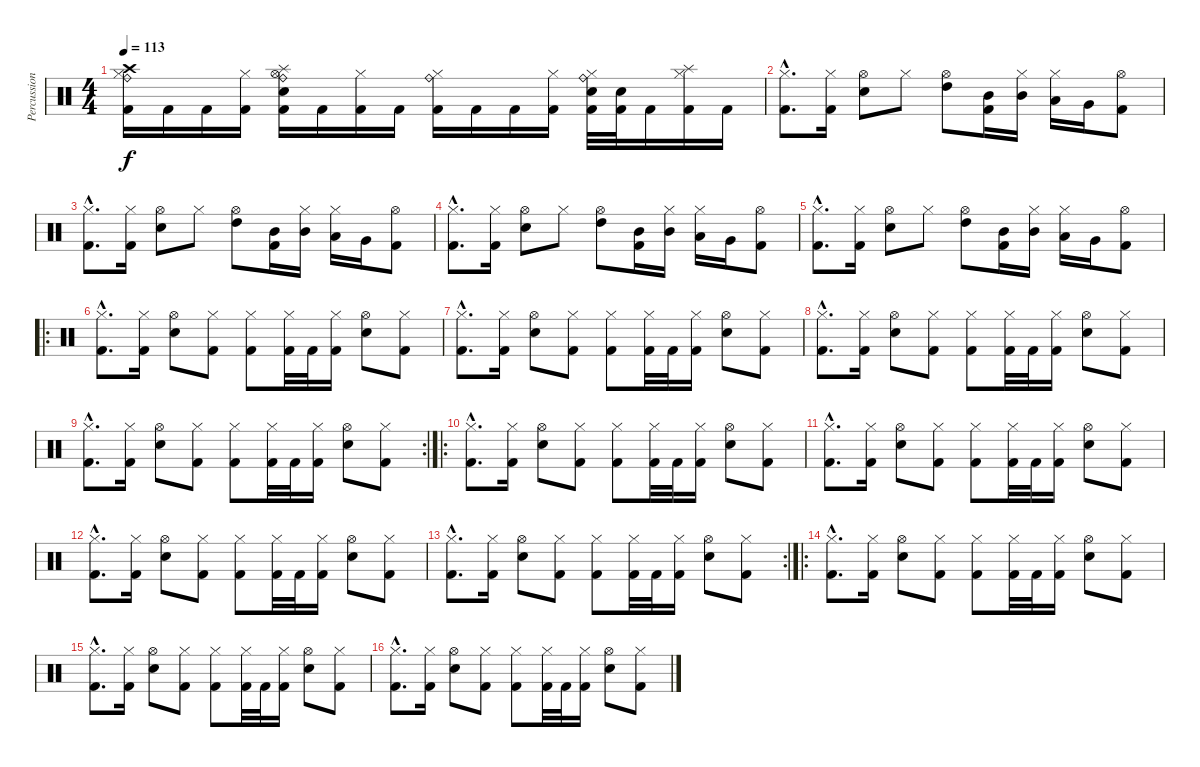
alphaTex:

\track ("Percussion" "Percussion") {instrument percussion}
\staff {score}
\articulation defaults
\ts (4 4)
\tempo 113
\clef neutral
\ks c
("Ride (bell)" "Crash high (hit)" "Hi-Hat (closed)" "Kick (hit) 2").16{dy f} "Kick (hit) 2".16 "Kick (hit) 2".16 ("Hi-Hat (closed)" "Kick (hit) 2").16 ("Ride (bell)" "Hi-Hat (open)" "Splash (hit)" "Snare (hit) 2" "Kick (hit) 2").16 "Kick (hit) 2".16 ("Hi-Hat (closed)" "Kick (hit) 2").16 "Kick (hit) 2".16 ("Ride (bell)" "Hi-Hat (closed)" "Kick (hit) 2").16 "Kick (hit) 2".16 "Kick (hit) 2".16 ("Hi-Hat (closed)" "Kick (hit) 2").16 ("Ride (bell)" "Hi-Hat (closed)" "Snare (hit) 2" "Kick (hit) 2").32 ("Snare (hit) 2" "Kick (hit) 2").32 "Kick (hit) 2".16 ("Hi-Hat (closed)" "Splash (hit)" "Kick (hit) 2").16 "Kick (hit) 2".16 |
("Hi-Hat (closed)"{hac} "Kick (hit) 2"{hac}).8{d} ("Hi-Hat (closed)" "Kick (hit) 2").16 ("Hi-Hat (open)" "Snare (hit) 2").8 "Hi-Hat (closed)".8 ("Hi-Hat (open)" "High Tom (hit)").8 ("Mid Tom (hit)" "Kick (hit) 2").16 ("Hi-Hat (closed)" "Mid Tom (hit)").16 ("Hi-Hat (closed)" "Low Tom (hit)").16 "Very Low Tom (hit)".16 ("Hi-Hat (open)" "Kick (hit) 2").8 |
("Hi-Hat (closed)"{hac} "Kick (hit) 2"{hac}).8{d} ("Hi-Hat (closed)" "Kick (hit) 2").16 ("Hi-Hat (open)" "Snare (hit) 2").8 "Hi-Hat (closed)".8 ("Hi-Hat (open)" "High Tom (hit)").8 ("Mid Tom (hit)" "Kick (hit) 2").16 ("Hi-Hat (closed)" "Mid Tom (hit)").16 ("Hi-Hat (closed)" "Low Tom (hit)").16 "Very Low Tom (hit)".16 ("Hi-Hat (open)" "Kick (hit) 2").8 |
("Hi-Hat (closed)"{hac} "Kick (hit) 2"{hac}).8{d} ("Hi-Hat (closed)" "Kick (hit) 2").16 ("Hi-Hat (open)" "Snare (hit) 2").8 "Hi-Hat (closed)".8 ("Hi-Hat (open)" "High Tom (hit)").8 ("Mid Tom (hit)" "Kick (hit) 2").16 ("Hi-Hat (closed)" "Mid Tom (hit)").16 ("Hi-Hat (closed)" "Low Tom (hit)").16 "Very Low Tom (hit)".16 ("Hi-Hat (open)" "Kick (hit) 2").8 |
("Hi-Hat (closed)"{hac} "Kick (hit) 2"{hac}).8{d} ("Hi-Hat (closed)" "Kick (hit) 2").16 ("Hi-Hat (open)" "Snare (hit) 2").8 "Hi-Hat (closed)".8 ("Hi-Hat (open)" "High Tom (hit)").8 ("Mid Tom (hit)" "Kick (hit) 2").16 ("Hi-Hat (closed)" "Mid Tom (hit)").16 ("Hi-Hat (closed)" "Low Tom (hit)").16 "Very Low Tom (hit)".16 ("Hi-Hat (open)" "Kick (hit) 2").8 |
\ro
("Hi-Hat (closed)"{hac} "Kick (hit) 2"{hac}).8{d} ("Hi-Hat (closed)" "Kick (hit) 2").16 ("Hi-Hat (open)" "Snare (hit) 2").8 ("Hi-Hat (closed)" "Kick (hit) 2").8 ("Hi-Hat (closed)" "Kick (hit) 2").8 ("Hi-Hat (closed)" "Kick (hit) 2").32 "Kick (hit) 2".32 ("Hi-Hat (closed)" "Kick (hit) 2").16 ("Hi-Hat (open)" "Snare (hit) 2").8 ("Hi-Hat (closed)" "Kick (hit) 2").8 |
("Hi-Hat (closed)"{hac} "Kick (hit) 2"{hac}).8{d} ("Hi-Hat (closed)" "Kick (hit) 2").16 ("Hi-Hat (open)" "Snare (hit) 2").8 ("Hi-Hat (closed)" "Kick (hit) 2").8 ("Hi-Hat (closed)" "Kick (hit) 2").8 ("Hi-Hat (closed)" "Kick (hit) 2").32 "Kick (hit) 2".32 ("Hi-Hat (closed)" "Kick (hit) 2").16 ("Hi-Hat (open)" "Snare (hit) 2").8 ("Hi-Hat (closed)" "Kick (hit) 2").8 |
("Hi-Hat (closed)"{hac} "Kick (hit) 2"{hac}).8{d} ("Hi-Hat (closed)" "Kick (hit) 2").16 ("Hi-Hat (open)" "Snare (hit) 2").8 ("Hi-Hat (closed)" "Kick (hit) 2").8 ("Hi-Hat (closed)" "Kick (hit) 2").8 ("Hi-Hat (closed)" "Kick (hit) 2").32 "Kick (hit) 2".32 ("Hi-Hat (closed)" "Kick (hit) 2").16 ("Hi-Hat (open)" "Snare (hit) 2").8 ("Hi-Hat (closed)" "Kick (hit) 2").8 |
\rc 2
("Hi-Hat (closed)"{hac} "Kick (hit) 2"{hac}).8{d} ("Hi-Hat (closed)" "Kick (hit) 2").16 ("Hi-Hat (open)" "Snare (hit) 2").8 ("Hi-Hat (closed)" "Kick (hit) 2").8 ("Hi-Hat (closed)" "Kick (hit) 2").8 ("Hi-Hat (closed)" "Kick (hit) 2").32 "Kick (hit) 2".32 ("Hi-Hat (closed)" "Kick (hit) 2").16 ("Hi-Hat (open)" "Snare (hit) 2").8 ("Hi-Hat (closed)" "Kick (hit) 2").8 |
\ro
("Hi-Hat (closed)"{hac} "Kick (hit) 2"{hac}).8{d} ("Hi-Hat (closed)" "Kick (hit) 2").16 ("Hi-Hat (open)" "Snare (hit) 2").8 ("Hi-Hat (closed)" "Kick (hit) 2").8 ("Hi-Hat (closed)" "Kick (hit) 2").8 ("Hi-Hat (closed)" "Kick (hit) 2").32 "Kick (hit) 2".32 ("Hi-Hat (closed)" "Kick (hit) 2").16 ("Hi-Hat (open)" "Snare (hit) 2").8 ("Hi-Hat (closed)" "Kick (hit) 2").8 |
("Hi-Hat (closed)"{hac} "Kick (hit) 2"{hac}).8{d} ("Hi-Hat (closed)" "Kick (hit) 2").16 ("Hi-Hat (open)" "Snare (hit) 2").8 ("Hi-Hat (closed)" "Kick (hit) 2").8 ("Hi-Hat (closed)" "Kick (hit) 2").8 ("Hi-Hat (closed)" "Kick (hit) 2").32 "Kick (hit) 2".32 ("Hi-Hat (closed)" "Kick (hit) 2").16 ("Hi-Hat (open)" "Snare (hit) 2").8 ("Hi-Hat (closed)" "Kick (hit) 2").8 |
("Hi-Hat (closed)"{hac} "Kick (hit) 2"{hac}).8{d} ("Hi-Hat (closed)" "Kick (hit) 2").16 ("Hi-Hat (open)" "Snare (hit) 2").8 ("Hi-Hat (closed)" "Kick (hit) 2").8 ("Hi-Hat (closed)" "Kick (hit) 2").8 ("Hi-Hat (closed)" "Kick (hit) 2").32 "Kick (hit) 2".32 ("Hi-Hat (closed)" "Kick (hit) 2").16 ("Hi-Hat (open)" "Snare (hit) 2").8 ("Hi-Hat (closed)" "Kick (hit) 2").8 |
\rc 2
("Hi-Hat (closed)"{hac} "Kick (hit) 2"{hac}).8{d} ("Hi-Hat (closed)" "Kick (hit) 2").16 ("Hi-Hat (open)" "Snare (hit) 2").8 ("Hi-Hat (closed)" "Kick (hit) 2").8 ("Hi-Hat (closed)" "Kick (hit) 2").8 ("Hi-Hat (closed)" "Kick (hit) 2").32 "Kick (hit) 2".32 ("Hi-Hat (closed)" "Kick (hit) 2").16 ("Hi-Hat (open)" "Snare (hit) 2").8 ("Hi-Hat (closed)" "Kick (hit) 2").8 |
\ro
("Hi-Hat (closed)"{hac} "Kick (hit) 2"{hac}).8{d} ("Hi-Hat (closed)" "Kick (hit) 2").16 ("Hi-Hat (open)" "Snare (hit) 2").8 ("Hi-Hat (closed)" "Kick (hit) 2").8 ("Hi-Hat (closed)" "Kick (hit) 2").8 ("Hi-Hat (closed)" "Kick (hit) 2").32 "Kick (hit) 2".32 ("Hi-Hat (closed)" "Kick (hit) 2").16 ("Hi-Hat (open)" "Snare (hit) 2").8 ("Hi-Hat (closed)" "Kick (hit) 2").8 |
("Hi-Hat (closed)"{hac} "Kick (hit) 2"{hac}).8{d} ("Hi-Hat (closed)" "Kick (hit) 2").16 ("Hi-Hat (open)" "Snare (hit) 2").8 ("Hi-Hat (closed)" "Kick (hit) 2").8 ("Hi-Hat (closed)" "Kick (hit) 2").8 ("Hi-Hat (closed)" "Kick (hit) 2").32 "Kick (hit) 2".32 ("Hi-Hat (closed)" "Kick (hit) 2").16 ("Hi-Hat (open)" "Snare (hit) 2").8 ("Hi-Hat (closed)" "Kick (hit) 2").8 |
("Hi-Hat (closed)"{hac} "Kick (hit) 2"{hac}).8{d} ("Hi-Hat (closed)" "Kick (hit) 2").16 ("Hi-Hat (open)" "Snare (hit) 2").8 ("Hi-Hat (closed)" "Kick (hit) 2").8 ("Hi-Hat (closed)" "Kick (hit) 2").8 ("Hi-Hat (closed)" "Kick (hit) 2").32 "Kick (hit) 2".32 ("Hi-Hat (closed)" "Kick (hit) 2").16 ("Hi-Hat (open)" "Snare (hit) 2").8 ("Hi-Hat (closed)" "Kick (hit) 2").8
